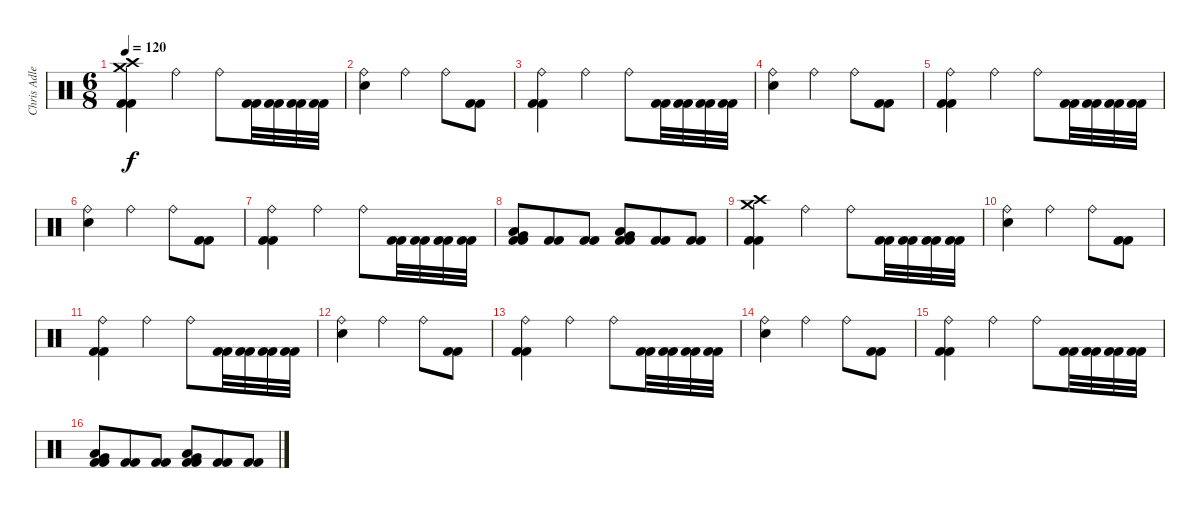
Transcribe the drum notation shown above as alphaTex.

\track ("Chris Adler" "Chris Adle") {instrument percussion}
\staff {score}
\articulation defaults
\ts (6 8)
\tempo 120
\clef neutral
\ks c
("Crash medium (hit)" "Crash high (hit)" "Kick (hit) 2" "Kick (hit) 2").4{dy f} "Ride (bell)".4 "Ride (bell)".8 ("Kick (hit) 2" "Kick (hit) 2").32 ("Kick (hit) 2" "Kick (hit) 2").32 ("Kick (hit) 2" "Kick (hit) 2").32 ("Kick (hit) 2" "Kick (hit) 2").32 |
("Ride (bell)" "Electric Snare (hit)").4 "Ride (bell)".4 "Ride (bell)".8 ("Kick (hit) 2" "Kick (hit) 2").8 |
("Ride (bell)" "Kick (hit) 2" "Kick (hit) 2").4 "Ride (bell)".4 "Ride (bell)".8 ("Kick (hit) 2" "Kick (hit) 2").32 ("Kick (hit) 2" "Kick (hit) 2").32 ("Kick (hit) 2" "Kick (hit) 2").32 ("Kick (hit) 2" "Kick (hit) 2").32 |
("Ride (bell)" "Electric Snare (hit)").4 "Ride (bell)".4 "Ride (bell)".8 ("Kick (hit) 2" "Kick (hit) 2").8 |
("Ride (bell)" "Kick (hit) 2" "Kick (hit) 2").4 "Ride (bell)".4 "Ride (bell)".8 ("Kick (hit) 2" "Kick (hit) 2").32 ("Kick (hit) 2" "Kick (hit) 2").32 ("Kick (hit) 2" "Kick (hit) 2").32 ("Kick (hit) 2" "Kick (hit) 2").32 |
("Ride (bell)" "Electric Snare (hit)").4 "Ride (bell)".4 "Ride (bell)".8 ("Kick (hit) 2" "Kick (hit) 2").8 |
("Ride (bell)" "Kick (hit) 2" "Kick (hit) 2").4 "Ride (bell)".4 "Ride (bell)".8 ("Kick (hit) 2" "Kick (hit) 2").32 ("Kick (hit) 2" "Kick (hit) 2").32 ("Kick (hit) 2" "Kick (hit) 2").32 ("Kick (hit) 2" "Kick (hit) 2").32 |
("Low Tom (hit)" "Very Low Tom (hit)" "Kick (hit) 2" "Kick (hit) 2").8 ("Kick (hit) 2" "Kick (hit) 2").8 ("Kick (hit) 2" "Kick (hit) 2").8 ("Very Low Tom (hit)" "Low Floor Tom (hit)" "Kick (hit) 2" "Kick (hit) 2").8 ("Kick (hit) 2" "Kick (hit) 2").8 ("Kick (hit) 2" "Kick (hit) 2").8 |
("Crash medium (hit)" "Crash high (hit)" "Kick (hit) 2" "Kick (hit) 2").4 "Ride (bell)".4 "Ride (bell)".8 ("Kick (hit) 2" "Kick (hit) 2").32 ("Kick (hit) 2" "Kick (hit) 2").32 ("Kick (hit) 2" "Kick (hit) 2").32 ("Kick (hit) 2" "Kick (hit) 2").32 |
("Ride (bell)" "Electric Snare (hit)").4 "Ride (bell)".4 "Ride (bell)".8 ("Kick (hit) 2" "Kick (hit) 2").8 |
("Ride (bell)" "Kick (hit) 2" "Kick (hit) 2").4 "Ride (bell)".4 "Ride (bell)".8 ("Kick (hit) 2" "Kick (hit) 2").32 ("Kick (hit) 2" "Kick (hit) 2").32 ("Kick (hit) 2" "Kick (hit) 2").32 ("Kick (hit) 2" "Kick (hit) 2").32 |
("Ride (bell)" "Electric Snare (hit)").4 "Ride (bell)".4 "Ride (bell)".8 ("Kick (hit) 2" "Kick (hit) 2").8 |
("Ride (bell)" "Kick (hit) 2" "Kick (hit) 2").4 "Ride (bell)".4 "Ride (bell)".8 ("Kick (hit) 2" "Kick (hit) 2").32 ("Kick (hit) 2" "Kick (hit) 2").32 ("Kick (hit) 2" "Kick (hit) 2").32 ("Kick (hit) 2" "Kick (hit) 2").32 |
("Ride (bell)" "Electric Snare (hit)").4 "Ride (bell)".4 "Ride (bell)".8 ("Kick (hit) 2" "Kick (hit) 2").8 |
("Ride (bell)" "Kick (hit) 2" "Kick (hit) 2").4 "Ride (bell)".4 "Ride (bell)".8 ("Kick (hit) 2" "Kick (hit) 2").32 ("Kick (hit) 2" "Kick (hit) 2").32 ("Kick (hit) 2" "Kick (hit) 2").32 ("Kick (hit) 2" "Kick (hit) 2").32 |
("Low Tom (hit)" "Very Low Tom (hit)" "Kick (hit) 2" "Kick (hit) 2").8 ("Kick (hit) 2" "Kick (hit) 2").8 ("Kick (hit) 2" "Kick (hit) 2").8 ("Very Low Tom (hit)" "Low Floor Tom (hit)" "Kick (hit) 2" "Kick (hit) 2").8 ("Kick (hit) 2" "Kick (hit) 2").8 ("Kick (hit) 2" "Kick (hit) 2").8
